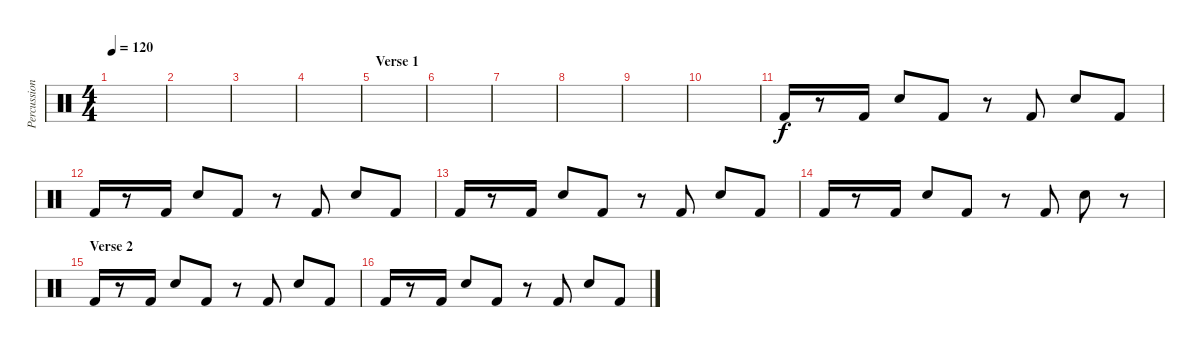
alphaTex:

\track ("Percussion" "Percussion") {instrument percussion}
\staff {score}
\articulation defaults
\ts (4 4)
\tempo 120
\clef neutral
\ks c
|
|
|
|
\section ("" "Verse 1")
|
|
|
|
|
|
"Kick (hit) 2".16 r.8 "Kick (hit) 2".16 "Electric Snare (hit)".8 "Kick (hit) 2".8 r.8 "Kick (hit) 2".8 "Snare (hit) 2".8 "Kick (hit) 2".8 |
"Kick (hit) 2".16 r.8 "Kick (hit) 2".16 "Electric Snare (hit)".8 "Kick (hit) 2".8 r.8 "Kick (hit) 2".8 "Snare (hit) 2".8 "Kick (hit) 2".8 |
"Kick (hit) 2".16 r.8 "Kick (hit) 2".16 "Electric Snare (hit)".8 "Kick (hit) 2".8 r.8 "Kick (hit) 2".8 "Snare (hit) 2".8 "Kick (hit) 2".8 |
"Kick (hit) 2".16 r.8 "Kick (hit) 2".16 "Electric Snare (hit)".8 "Kick (hit) 2".8 r.8 "Kick (hit) 2".8 "Snare (hit) 2".8 r.8 |
\section ("" "Verse 2")
"Kick (hit) 2".16 r.8 "Kick (hit) 2".16 "Electric Snare (hit)".8 "Kick (hit) 2".8 r.8 "Kick (hit) 2".8 "Snare (hit) 2".8 "Kick (hit) 2".8 |
"Kick (hit) 2".16 r.8 "Kick (hit) 2".16 "Electric Snare (hit)".8 "Kick (hit) 2".8 r.8 "Kick (hit) 2".8 "Snare (hit) 2".8 "Kick (hit) 2".8
